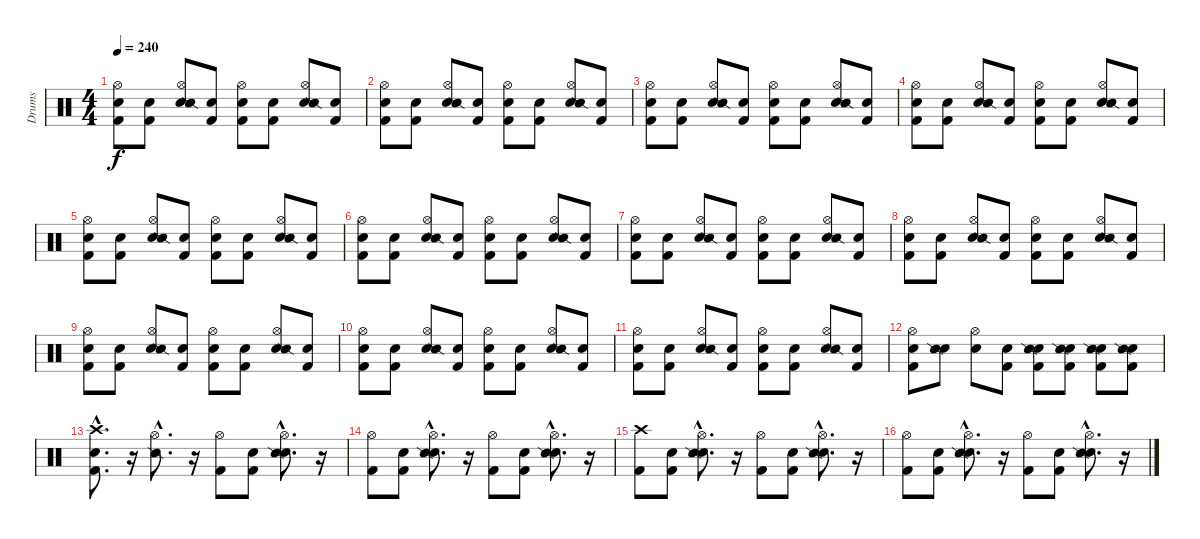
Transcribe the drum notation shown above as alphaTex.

\track ("Drums" "Drums") {instrument percussion}
\staff {score}
\articulation defaults
\ts (4 4)
\tempo 240
\clef neutral
\ks c
("Snare (hit)" "Kick (hit) 2" "Hi-Hat (open)").8{dy f} ("Snare (hit)" "Kick (hit) 2").8 ("Snare (hit)" "Hi-Hat (open)" "Snare (side stick) 2").8 ("Snare (hit)" "Kick (hit) 2").8 ("Snare (hit)" "Kick (hit) 2" "Hi-Hat (open)").8 ("Snare (hit)" "Kick (hit) 2").8 ("Snare (hit)" "Hi-Hat (open)" "Snare (side stick) 2").8 ("Snare (hit)" "Kick (hit) 2").8 |
("Snare (hit)" "Kick (hit) 2" "Hi-Hat (open)").8 ("Snare (hit)" "Kick (hit) 2").8 ("Snare (hit)" "Hi-Hat (open)" "Snare (side stick) 2").8 ("Snare (hit)" "Kick (hit) 2").8 ("Snare (hit)" "Kick (hit) 2" "Hi-Hat (open)").8 ("Snare (hit)" "Kick (hit) 2").8 ("Snare (hit)" "Hi-Hat (open)" "Snare (side stick) 2").8 ("Snare (hit)" "Kick (hit) 2").8 |
("Snare (hit)" "Kick (hit) 2" "Hi-Hat (open)").8 ("Snare (hit)" "Kick (hit) 2").8 ("Snare (hit)" "Hi-Hat (open)" "Snare (side stick) 2").8 ("Snare (hit)" "Kick (hit) 2").8 ("Snare (hit)" "Kick (hit) 2" "Hi-Hat (open)").8 ("Snare (hit)" "Kick (hit) 2").8 ("Snare (hit)" "Hi-Hat (open)" "Snare (side stick) 2").8 ("Snare (hit)" "Kick (hit) 2").8 |
("Snare (hit)" "Kick (hit) 2" "Hi-Hat (open)").8 ("Snare (hit)" "Kick (hit) 2").8 ("Snare (hit)" "Hi-Hat (open)" "Snare (side stick) 2").8 ("Snare (hit)" "Kick (hit) 2").8 ("Snare (hit)" "Kick (hit) 2" "Hi-Hat (open)").8 ("Snare (hit)" "Kick (hit) 2").8 ("Snare (hit)" "Hi-Hat (open)" "Snare (side stick) 2").8 ("Snare (hit)" "Kick (hit) 2").8 |
("Snare (hit)" "Kick (hit) 2" "Hi-Hat (open)").8 ("Snare (hit)" "Kick (hit) 2").8 ("Snare (hit)" "Hi-Hat (open)" "Snare (side stick) 2").8 ("Snare (hit)" "Kick (hit) 2").8 ("Snare (hit)" "Kick (hit) 2" "Hi-Hat (open)").8 ("Snare (hit)" "Kick (hit) 2").8 ("Snare (hit)" "Hi-Hat (open)" "Snare (side stick) 2").8 ("Snare (hit)" "Kick (hit) 2").8 |
("Snare (hit)" "Kick (hit) 2" "Hi-Hat (open)").8 ("Snare (hit)" "Kick (hit) 2").8 ("Snare (hit)" "Hi-Hat (open)" "Snare (side stick) 2").8 ("Snare (hit)" "Kick (hit) 2").8 ("Snare (hit)" "Kick (hit) 2" "Hi-Hat (open)").8 ("Snare (hit)" "Kick (hit) 2").8 ("Snare (hit)" "Hi-Hat (open)" "Snare (side stick) 2").8 ("Snare (hit)" "Kick (hit) 2").8 |
("Snare (hit)" "Kick (hit) 2" "Hi-Hat (open)").8 ("Snare (hit)" "Kick (hit) 2").8 ("Snare (hit)" "Hi-Hat (open)" "Snare (side stick) 2").8 ("Snare (hit)" "Kick (hit) 2").8 ("Snare (hit)" "Kick (hit) 2" "Hi-Hat (open)").8 ("Snare (hit)" "Kick (hit) 2").8 ("Snare (hit)" "Hi-Hat (open)" "Snare (side stick) 2").8 ("Snare (hit)" "Kick (hit) 2").8 |
("Snare (hit)" "Kick (hit) 2" "Hi-Hat (open)").8 ("Snare (hit)" "Kick (hit) 2").8 ("Snare (hit)" "Hi-Hat (open)" "Snare (side stick) 2").8 ("Snare (hit)" "Kick (hit) 2").8 ("Snare (hit)" "Kick (hit) 2" "Hi-Hat (open)").8 ("Snare (hit)" "Kick (hit) 2").8 ("Snare (hit)" "Hi-Hat (open)" "Snare (side stick) 2").8 ("Snare (hit)" "Kick (hit) 2").8 |
("Snare (hit)" "Kick (hit) 2" "Hi-Hat (open)").8 ("Snare (hit)" "Kick (hit) 2").8 ("Snare (hit)" "Hi-Hat (open)" "Snare (side stick) 2").8 ("Snare (hit)" "Kick (hit) 2").8 ("Snare (hit)" "Kick (hit) 2" "Hi-Hat (open)").8 ("Snare (hit)" "Kick (hit) 2").8 ("Snare (hit)" "Hi-Hat (open)" "Snare (side stick) 2").8 ("Snare (hit)" "Kick (hit) 2").8 |
("Snare (hit)" "Kick (hit) 2" "Hi-Hat (open)").8 ("Snare (hit)" "Kick (hit) 2").8 ("Snare (hit)" "Hi-Hat (open)" "Snare (side stick) 2").8 ("Snare (hit)" "Kick (hit) 2").8 ("Snare (hit)" "Kick (hit) 2" "Hi-Hat (open)").8 ("Snare (hit)" "Kick (hit) 2").8 ("Snare (hit)" "Hi-Hat (open)" "Snare (side stick) 2").8 ("Snare (hit)" "Kick (hit) 2").8 |
("Snare (hit)" "Kick (hit) 2" "Hi-Hat (open)").8 ("Snare (hit)" "Kick (hit) 2").8 ("Snare (hit)" "Hi-Hat (open)" "Snare (side stick) 2").8 ("Snare (hit)" "Kick (hit) 2").8 ("Snare (hit)" "Kick (hit) 2" "Hi-Hat (open)").8 ("Snare (hit)" "Kick (hit) 2").8 ("Snare (hit)" "Hi-Hat (open)" "Snare (side stick) 2").8 ("Snare (hit)" "Kick (hit) 2").8 |
("Snare (hit)" "Kick (hit) 2" "Hi-Hat (open)").8 ("Snare (hit)" "Snare (side stick) 2").8 ("Snare (hit)" "Hi-Hat (open)").8 ("Snare (hit)" "Kick (hit) 2").8 ("Snare (hit)" "Kick (hit) 2" "Snare (side stick) 2").8 ("Snare (hit)" "Kick (hit) 2" "Snare (side stick) 2").8 ("Snare (hit)" "Kick (hit) 2" "Snare (side stick) 2").8 ("Snare (hit)" "Kick (hit) 2" "Snare (side stick) 2").8 |
("Snare (hit)"{hac} "Kick (hit) 2"{hac} "Crash high (hit)"{hac}).8{d} r.16 ("Hi-Hat (open)"{hac} "Snare (side stick) 2"{hac}).8{d} r.16 ("Kick (hit) 2" "Hi-Hat (open)").8 ("Snare (hit)" "Kick (hit) 2").8 ("Snare (hit)"{hac} "Hi-Hat (open)"{hac} "Snare (side stick) 2"{hac}).8{d} r.16 |
("Kick (hit) 2" "Hi-Hat (open)").8 ("Snare (hit)" "Kick (hit) 2").8 ("Snare (hit)"{hac} "Hi-Hat (open)"{hac} "Snare (side stick) 2"{hac}).8{d} r.16 ("Kick (hit) 2" "Hi-Hat (open)").8 ("Snare (hit)" "Kick (hit) 2").8 ("Snare (hit)"{hac} "Hi-Hat (open)"{hac} "Snare (side stick) 2"{hac}).8{d} r.16 |
("Kick (hit) 2" "Crash high (hit)").8 ("Snare (hit)" "Kick (hit) 2").8 ("Snare (hit)"{hac} "Hi-Hat (open)"{hac} "Snare (side stick) 2"{hac}).8{d} r.16 ("Kick (hit) 2" "Hi-Hat (open)").8 ("Snare (hit)" "Kick (hit) 2").8 ("Snare (hit)"{hac} "Hi-Hat (open)"{hac} "Snare (side stick) 2"{hac}).8{d} r.16 |
("Kick (hit) 2" "Hi-Hat (open)").8 ("Snare (hit)" "Kick (hit) 2").8 ("Snare (hit)"{hac} "Hi-Hat (open)"{hac} "Snare (side stick) 2"{hac}).8{d} r.16 ("Kick (hit) 2" "Hi-Hat (open)").8 ("Snare (hit)" "Kick (hit) 2").8 ("Snare (hit)"{hac} "Hi-Hat (open)"{hac} "Snare (side stick) 2"{hac}).8{d} r.16
